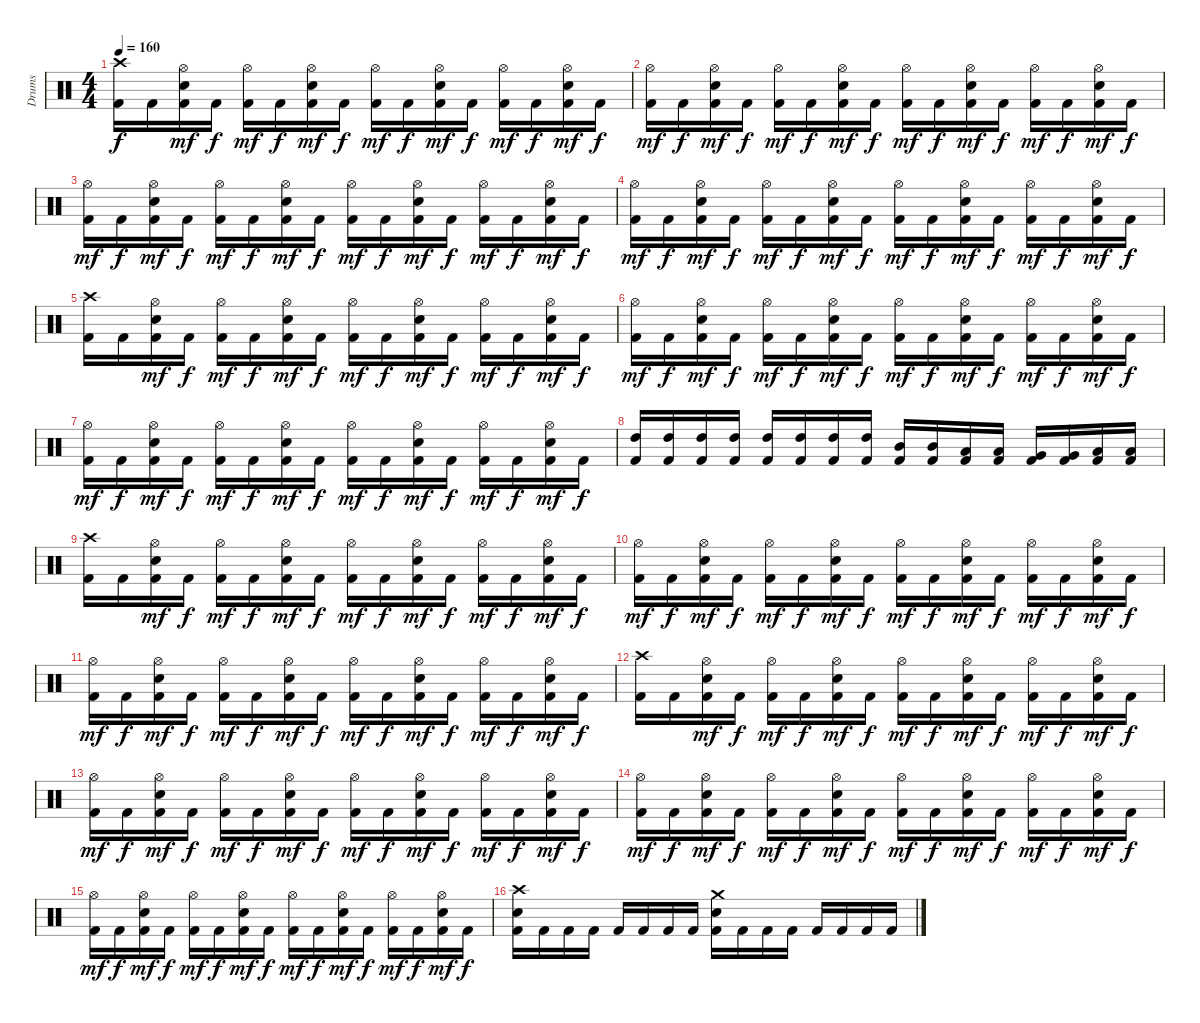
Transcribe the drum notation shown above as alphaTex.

\track ("Drums" "Drums") {instrument percussion}
\staff {score}
\articulation defaults
\ts (4 4)
\tempo 160
\clef neutral
\ks c
("Crash high (hit)" "Kick (hit) 2").16{dy f} "Kick (hit) 2".16 ("Hi-Hat (open)" "Electric Snare (hit)" "Kick (hit) 2").16{dy mf} "Kick (hit) 2".16{dy f} ("Hi-Hat (open)" "Kick (hit) 2").16{dy mf} "Kick (hit) 2".16{dy f} ("Hi-Hat (open)" "Electric Snare (hit)" "Kick (hit) 2").16{dy mf} "Kick (hit) 2".16{dy f} ("Hi-Hat (open)" "Kick (hit) 2").16{dy mf} "Kick (hit) 2".16{dy f} ("Hi-Hat (open)" "Electric Snare (hit)" "Kick (hit) 2").16{dy mf} "Kick (hit) 2".16{dy f} ("Hi-Hat (open)" "Kick (hit) 2").16{dy mf} "Kick (hit) 2".16{dy f} ("Hi-Hat (open)" "Electric Snare (hit)" "Kick (hit) 2").16{dy mf} "Kick (hit) 2".16{dy f} |
("Hi-Hat (open)" "Kick (hit) 2").16{dy mf} "Kick (hit) 2".16{dy f} ("Hi-Hat (open)" "Electric Snare (hit)" "Kick (hit) 2").16{dy mf} "Kick (hit) 2".16{dy f} ("Hi-Hat (open)" "Kick (hit) 2").16{dy mf} "Kick (hit) 2".16{dy f} ("Hi-Hat (open)" "Electric Snare (hit)" "Kick (hit) 2").16{dy mf} "Kick (hit) 2".16{dy f} ("Hi-Hat (open)" "Kick (hit) 2").16{dy mf} "Kick (hit) 2".16{dy f} ("Hi-Hat (open)" "Electric Snare (hit)" "Kick (hit) 2").16{dy mf} "Kick (hit) 2".16{dy f} ("Hi-Hat (open)" "Kick (hit) 2").16{dy mf} "Kick (hit) 2".16{dy f} ("Hi-Hat (open)" "Electric Snare (hit)" "Kick (hit) 2").16{dy mf} "Kick (hit) 2".16{dy f} |
("Hi-Hat (open)" "Kick (hit) 2").16{dy mf} "Kick (hit) 2".16{dy f} ("Hi-Hat (open)" "Electric Snare (hit)" "Kick (hit) 2").16{dy mf} "Kick (hit) 2".16{dy f} ("Hi-Hat (open)" "Kick (hit) 2").16{dy mf} "Kick (hit) 2".16{dy f} ("Hi-Hat (open)" "Electric Snare (hit)" "Kick (hit) 2").16{dy mf} "Kick (hit) 2".16{dy f} ("Hi-Hat (open)" "Kick (hit) 2").16{dy mf} "Kick (hit) 2".16{dy f} ("Hi-Hat (open)" "Electric Snare (hit)" "Kick (hit) 2").16{dy mf} "Kick (hit) 2".16{dy f} ("Hi-Hat (open)" "Kick (hit) 2").16{dy mf} "Kick (hit) 2".16{dy f} ("Hi-Hat (open)" "Electric Snare (hit)" "Kick (hit) 2").16{dy mf} "Kick (hit) 2".16{dy f} |
("Hi-Hat (open)" "Kick (hit) 2").16{dy mf} "Kick (hit) 2".16{dy f} ("Hi-Hat (open)" "Electric Snare (hit)" "Kick (hit) 2").16{dy mf} "Kick (hit) 2".16{dy f} ("Hi-Hat (open)" "Kick (hit) 2").16{dy mf} "Kick (hit) 2".16{dy f} ("Hi-Hat (open)" "Electric Snare (hit)" "Kick (hit) 2").16{dy mf} "Kick (hit) 2".16{dy f} ("Hi-Hat (open)" "Kick (hit) 2").16{dy mf} "Kick (hit) 2".16{dy f} ("Hi-Hat (open)" "Electric Snare (hit)" "Kick (hit) 2").16{dy mf} "Kick (hit) 2".16{dy f} ("Hi-Hat (open)" "Kick (hit) 2").16{dy mf} "Kick (hit) 2".16{dy f} ("Hi-Hat (open)" "Electric Snare (hit)" "Kick (hit) 2").16{dy mf} "Kick (hit) 2".16{dy f} |
("Crash high (hit)" "Kick (hit) 2").16 "Kick (hit) 2".16 ("Hi-Hat (open)" "Electric Snare (hit)" "Kick (hit) 2").16{dy mf} "Kick (hit) 2".16{dy f} ("Hi-Hat (open)" "Kick (hit) 2").16{dy mf} "Kick (hit) 2".16{dy f} ("Hi-Hat (open)" "Electric Snare (hit)" "Kick (hit) 2").16{dy mf} "Kick (hit) 2".16{dy f} ("Hi-Hat (open)" "Kick (hit) 2").16{dy mf} "Kick (hit) 2".16{dy f} ("Hi-Hat (open)" "Electric Snare (hit)" "Kick (hit) 2").16{dy mf} "Kick (hit) 2".16{dy f} ("Hi-Hat (open)" "Kick (hit) 2").16{dy mf} "Kick (hit) 2".16{dy f} ("Hi-Hat (open)" "Electric Snare (hit)" "Kick (hit) 2").16{dy mf} "Kick (hit) 2".16{dy f} |
("Hi-Hat (open)" "Kick (hit) 2").16{dy mf} "Kick (hit) 2".16{dy f} ("Hi-Hat (open)" "Electric Snare (hit)" "Kick (hit) 2").16{dy mf} "Kick (hit) 2".16{dy f} ("Hi-Hat (open)" "Kick (hit) 2").16{dy mf} "Kick (hit) 2".16{dy f} ("Hi-Hat (open)" "Electric Snare (hit)" "Kick (hit) 2").16{dy mf} "Kick (hit) 2".16{dy f} ("Hi-Hat (open)" "Kick (hit) 2").16{dy mf} "Kick (hit) 2".16{dy f} ("Hi-Hat (open)" "Electric Snare (hit)" "Kick (hit) 2").16{dy mf} "Kick (hit) 2".16{dy f} ("Hi-Hat (open)" "Kick (hit) 2").16{dy mf} "Kick (hit) 2".16{dy f} ("Hi-Hat (open)" "Electric Snare (hit)" "Kick (hit) 2").16{dy mf} "Kick (hit) 2".16{dy f} |
("Hi-Hat (open)" "Kick (hit) 2").16{dy mf} "Kick (hit) 2".16{dy f} ("Hi-Hat (open)" "Electric Snare (hit)" "Kick (hit) 2").16{dy mf} "Kick (hit) 2".16{dy f} ("Hi-Hat (open)" "Kick (hit) 2").16{dy mf} "Kick (hit) 2".16{dy f} ("Hi-Hat (open)" "Electric Snare (hit)" "Kick (hit) 2").16{dy mf} "Kick (hit) 2".16{dy f} ("Hi-Hat (open)" "Kick (hit) 2").16{dy mf} "Kick (hit) 2".16{dy f} ("Hi-Hat (open)" "Electric Snare (hit)" "Kick (hit) 2").16{dy mf} "Kick (hit) 2".16{dy f} ("Hi-Hat (open)" "Kick (hit) 2").16{dy mf} "Kick (hit) 2".16{dy f} ("Hi-Hat (open)" "Electric Snare (hit)" "Kick (hit) 2").16{dy mf} "Kick (hit) 2".16{dy f} |
("High Tom (hit)" "Kick (hit) 2").16 ("High Tom (hit)" "Kick (hit) 2").16 ("High Tom (hit)" "Kick (hit) 2").16 ("High Tom (hit)" "Kick (hit) 2").16 ("High Tom (hit)" "Kick (hit) 2").16 ("High Tom (hit)" "Kick (hit) 2").16 ("High Tom (hit)" "Kick (hit) 2").16 ("High Tom (hit)" "Kick (hit) 2").16 ("Mid Tom (hit)" "Kick (hit) 2").16 ("Mid Tom (hit)" "Kick (hit) 2").16 ("Low Tom (hit)" "Kick (hit) 2").16 ("Low Tom (hit)" "Kick (hit) 2").16 ("Very Low Tom (hit)" "Kick (hit) 2").16 ("Very Low Tom (hit)" "Kick (hit) 2").16 ("Low Floor Tom (hit)" "Kick (hit) 2").16 ("Low Floor Tom (hit)" "Kick (hit) 2").16 |
("Crash high (hit)" "Kick (hit) 2").16 "Kick (hit) 2".16 ("Hi-Hat (open)" "Electric Snare (hit)" "Kick (hit) 2").16{dy mf} "Kick (hit) 2".16{dy f} ("Hi-Hat (open)" "Kick (hit) 2").16{dy mf} "Kick (hit) 2".16{dy f} ("Hi-Hat (open)" "Electric Snare (hit)" "Kick (hit) 2").16{dy mf} "Kick (hit) 2".16{dy f} ("Hi-Hat (open)" "Kick (hit) 2").16{dy mf} "Kick (hit) 2".16{dy f} ("Hi-Hat (open)" "Electric Snare (hit)" "Kick (hit) 2").16{dy mf} "Kick (hit) 2".16{dy f} ("Hi-Hat (open)" "Kick (hit) 2").16{dy mf} "Kick (hit) 2".16{dy f} ("Hi-Hat (open)" "Electric Snare (hit)" "Kick (hit) 2").16{dy mf} "Kick (hit) 2".16{dy f} |
("Hi-Hat (open)" "Kick (hit) 2").16{dy mf} "Kick (hit) 2".16{dy f} ("Hi-Hat (open)" "Electric Snare (hit)" "Kick (hit) 2").16{dy mf} "Kick (hit) 2".16{dy f} ("Hi-Hat (open)" "Kick (hit) 2").16{dy mf} "Kick (hit) 2".16{dy f} ("Hi-Hat (open)" "Electric Snare (hit)" "Kick (hit) 2").16{dy mf} "Kick (hit) 2".16{dy f} ("Hi-Hat (open)" "Kick (hit) 2").16{dy mf} "Kick (hit) 2".16{dy f} ("Hi-Hat (open)" "Electric Snare (hit)" "Kick (hit) 2").16{dy mf} "Kick (hit) 2".16{dy f} ("Hi-Hat (open)" "Kick (hit) 2").16{dy mf} "Kick (hit) 2".16{dy f} ("Hi-Hat (open)" "Electric Snare (hit)" "Kick (hit) 2").16{dy mf} "Kick (hit) 2".16{dy f} |
("Hi-Hat (open)" "Kick (hit) 2").16{dy mf} "Kick (hit) 2".16{dy f} ("Hi-Hat (open)" "Electric Snare (hit)" "Kick (hit) 2").16{dy mf} "Kick (hit) 2".16{dy f} ("Hi-Hat (open)" "Kick (hit) 2").16{dy mf} "Kick (hit) 2".16{dy f} ("Hi-Hat (open)" "Electric Snare (hit)" "Kick (hit) 2").16{dy mf} "Kick (hit) 2".16{dy f} ("Hi-Hat (open)" "Kick (hit) 2").16{dy mf} "Kick (hit) 2".16{dy f} ("Hi-Hat (open)" "Electric Snare (hit)" "Kick (hit) 2").16{dy mf} "Kick (hit) 2".16{dy f} ("Hi-Hat (open)" "Kick (hit) 2").16{dy mf} "Kick (hit) 2".16{dy f} ("Hi-Hat (open)" "Electric Snare (hit)" "Kick (hit) 2").16{dy mf} "Kick (hit) 2".16{dy f} |
("Crash high (hit)" "Kick (hit) 2").16 "Kick (hit) 2".16 ("Hi-Hat (open)" "Electric Snare (hit)" "Kick (hit) 2").16{dy mf} "Kick (hit) 2".16{dy f} ("Hi-Hat (open)" "Kick (hit) 2").16{dy mf} "Kick (hit) 2".16{dy f} ("Hi-Hat (open)" "Electric Snare (hit)" "Kick (hit) 2").16{dy mf} "Kick (hit) 2".16{dy f} ("Hi-Hat (open)" "Kick (hit) 2").16{dy mf} "Kick (hit) 2".16{dy f} ("Hi-Hat (open)" "Electric Snare (hit)" "Kick (hit) 2").16{dy mf} "Kick (hit) 2".16{dy f} ("Hi-Hat (open)" "Kick (hit) 2").16{dy mf} "Kick (hit) 2".16{dy f} ("Hi-Hat (open)" "Electric Snare (hit)" "Kick (hit) 2").16{dy mf} "Kick (hit) 2".16{dy f} |
("Hi-Hat (open)" "Kick (hit) 2").16{dy mf} "Kick (hit) 2".16{dy f} ("Hi-Hat (open)" "Electric Snare (hit)" "Kick (hit) 2").16{dy mf} "Kick (hit) 2".16{dy f} ("Hi-Hat (open)" "Kick (hit) 2").16{dy mf} "Kick (hit) 2".16{dy f} ("Hi-Hat (open)" "Electric Snare (hit)" "Kick (hit) 2").16{dy mf} "Kick (hit) 2".16{dy f} ("Hi-Hat (open)" "Kick (hit) 2").16{dy mf} "Kick (hit) 2".16{dy f} ("Hi-Hat (open)" "Electric Snare (hit)" "Kick (hit) 2").16{dy mf} "Kick (hit) 2".16{dy f} ("Hi-Hat (open)" "Kick (hit) 2").16{dy mf} "Kick (hit) 2".16{dy f} ("Hi-Hat (open)" "Electric Snare (hit)" "Kick (hit) 2").16{dy mf} "Kick (hit) 2".16{dy f} |
("Hi-Hat (open)" "Kick (hit) 2").16{dy mf} "Kick (hit) 2".16{dy f} ("Hi-Hat (open)" "Electric Snare (hit)" "Kick (hit) 2").16{dy mf} "Kick (hit) 2".16{dy f} ("Hi-Hat (open)" "Kick (hit) 2").16{dy mf} "Kick (hit) 2".16{dy f} ("Hi-Hat (open)" "Electric Snare (hit)" "Kick (hit) 2").16{dy mf} "Kick (hit) 2".16{dy f} ("Hi-Hat (open)" "Kick (hit) 2").16{dy mf} "Kick (hit) 2".16{dy f} ("Hi-Hat (open)" "Electric Snare (hit)" "Kick (hit) 2").16{dy mf} "Kick (hit) 2".16{dy f} ("Hi-Hat (open)" "Kick (hit) 2").16{dy mf} "Kick (hit) 2".16{dy f} ("Hi-Hat (open)" "Electric Snare (hit)" "Kick (hit) 2").16{dy mf} "Kick (hit) 2".16{dy f} |
("Hi-Hat (open)" "Kick (hit) 2").16{dy mf} "Kick (hit) 2".16{dy f} ("Hi-Hat (open)" "Electric Snare (hit)" "Kick (hit) 2").16{dy mf} "Kick (hit) 2".16{dy f} ("Hi-Hat (open)" "Kick (hit) 2").16{dy mf} "Kick (hit) 2".16{dy f} ("Hi-Hat (open)" "Electric Snare (hit)" "Kick (hit) 2").16{dy mf} "Kick (hit) 2".16{dy f} ("Hi-Hat (open)" "Kick (hit) 2").16{dy mf} "Kick (hit) 2".16{dy f} ("Hi-Hat (open)" "Electric Snare (hit)" "Kick (hit) 2").16{dy mf} "Kick (hit) 2".16{dy f} ("Hi-Hat (open)" "Kick (hit) 2").16{dy mf} "Kick (hit) 2".16{dy f} ("Hi-Hat (open)" "Electric Snare (hit)" "Kick (hit) 2").16{dy mf} "Kick (hit) 2".16{dy f} |
("Crash high (hit)" "Electric Snare (hit)" "Kick (hit) 2").16 "Kick (hit) 2".16 "Kick (hit) 2".16 "Kick (hit) 2".16 "Kick (hit) 2".16 "Kick (hit) 2".16 "Kick (hit) 2".16 "Kick (hit) 2".16 ("Crash medium (hit)" "Electric Snare (hit)" "Kick (hit) 2").16 "Kick (hit) 2".16 "Kick (hit) 2".16 "Kick (hit) 2".16 "Kick (hit) 2".16 "Kick (hit) 2".16 "Kick (hit) 2".16 "Kick (hit) 2".16
